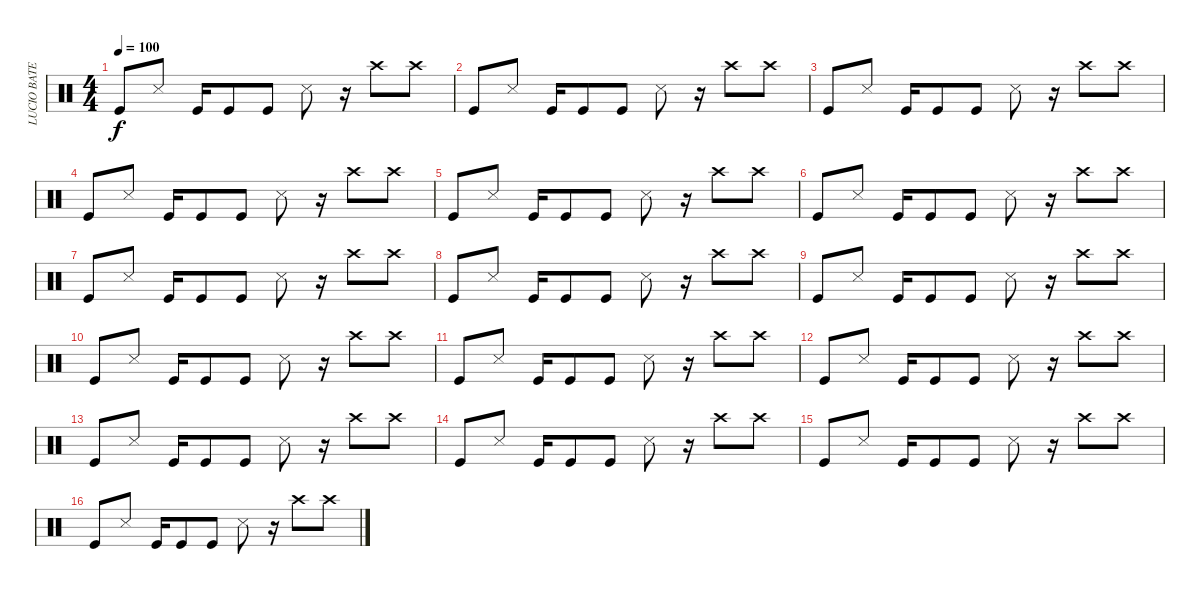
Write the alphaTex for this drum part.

\track ("LUCIO BATERIA" "LUCIO BATE") {instrument percussion}
\staff {score}
\articulation defaults
\ts (4 4)
\tempo 100
\clef neutral
\ks c "Kick (hit)".8{dy f} "Snare (side stick) 3".8 "Kick (hit)".16 "Kick (hit)".8 "Kick (hit)".8 "Snare (side stick) 3".8
r.16 "Crash high (hit)".8 "Crash high (hit)".8 |
"Kick (hit)".8 "Snare (side stick) 3".8 "Kick (hit)".16 "Kick (hit)".8 "Kick (hit)".8 "Snare (side stick) 3".8 r.16 "Crash high (hit)".8 "Crash high (hit)".8 |
"Kick (hit)".8 "Snare (side stick) 3".8 "Kick (hit)".16 "Kick (hit)".8 "Kick (hit)".8 "Snare (side stick) 3".8 r.16 "Crash high (hit)".8 "Crash high (hit)".8 |
"Kick (hit)".8 "Snare (side stick) 3".8 "Kick (hit)".16 "Kick (hit)".8 "Kick (hit)".8 "Snare (side stick) 3".8 r.16 "Crash high (hit)".8 "Crash high (hit)".8 |
"Kick (hit)".8 "Snare (side stick) 3".8 "Kick (hit)".16 "Kick (hit)".8 "Kick (hit)".8 "Snare (side stick) 3".8 r.16 "Crash high (hit)".8 "Crash high (hit)".8 |
"Kick (hit)".8 "Snare (side stick) 3".8 "Kick (hit)".16 "Kick (hit)".8 "Kick (hit)".8 "Snare (side stick) 3".8 r.16 "Crash high (hit)".8 "Crash high (hit)".8 |
"Kick (hit)".8 "Snare (side stick) 3".8 "Kick (hit)".16 "Kick (hit)".8 "Kick (hit)".8 "Snare (side stick) 3".8 r.16 "Crash high (hit)".8 "Crash high (hit)".8 |
"Kick (hit)".8 "Snare (side stick) 3".8 "Kick (hit)".16 "Kick (hit)".8 "Kick (hit)".8 "Snare (side stick) 3".8 r.16 "Crash high (hit)".8 "Crash high (hit)".8 |
"Kick (hit)".8 "Snare (side stick) 3".8 "Kick (hit)".16 "Kick (hit)".8 "Kick (hit)".8 "Snare (side stick) 3".8 r.16 "Crash high (hit)".8 "Crash high (hit)".8 |
"Kick (hit)".8 "Snare (side stick) 3".8 "Kick (hit)".16 "Kick (hit)".8 "Kick (hit)".8 "Snare (side stick) 3".8 r.16 "Crash high (hit)".8 "Crash high (hit)".8 |
"Kick (hit)".8 "Snare (side stick) 3".8 "Kick (hit)".16 "Kick (hit)".8 "Kick (hit)".8 "Snare (side stick) 3".8 r.16 "Crash high (hit)".8 "Crash high (hit)".8 |
"Kick (hit)".8 "Snare (side stick) 3".8 "Kick (hit)".16 "Kick (hit)".8 "Kick (hit)".8 "Snare (side stick) 3".8 r.16 "Crash high (hit)".8 "Crash high (hit)".8 |
"Kick (hit)".8 "Snare (side stick) 3".8 "Kick (hit)".16 "Kick (hit)".8 "Kick (hit)".8 "Snare (side stick) 3".8 r.16 "Crash high (hit)".8 "Crash high (hit)".8 |
"Kick (hit)".8 "Snare (side stick) 3".8 "Kick (hit)".16 "Kick (hit)".8 "Kick (hit)".8 "Snare (side stick) 3".8 r.16 "Crash high (hit)".8 "Crash high (hit)".8 |
"Kick (hit)".8 "Snare (side stick) 3".8 "Kick (hit)".16 "Kick (hit)".8 "Kick (hit)".8 "Snare (side stick) 3".8 r.16 "Crash high (hit)".8 "Crash high (hit)".8 |
"Kick (hit)".8 "Snare (side stick) 3".8 "Kick (hit)".16 "Kick (hit)".8 "Kick (hit)".8 "Snare (side stick) 3".8 r.16 "Crash high (hit)".8 "Crash high (hit)".8
